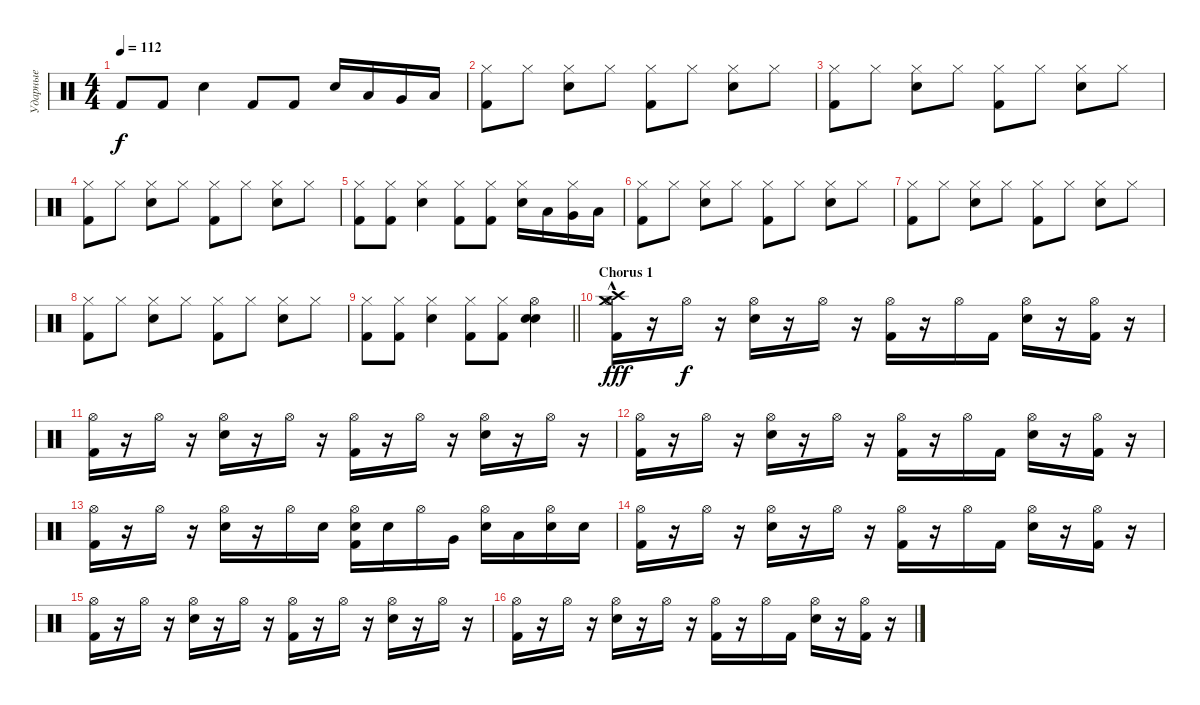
\track ("Ударные" "Ударные") {instrument percussion}
\staff {score}
\articulation defaults
\ts (4 4)
\tempo 112
\clef neutral
\ks c "Kick (hit) 2".8{dy f} "Kick (hit) 2".8 "Snare (hit) 2".4 "Kick (hit) 2".8 "Kick (hit) 2".8 "Snare (hit) 2".16 "Low Tom (hit)".16 "Very Low Tom (hit)".16 "Low Floor Tom (hit)".16
|
("Hi-Hat (closed)" "Kick (hit) 2").8 "Hi-Hat (closed)".8 ("Hi-Hat (closed)" "Snare (hit) 2").8 "Hi-Hat (closed)".8 ("Hi-Hat (closed)" "Kick (hit) 2").8 "Hi-Hat (closed)".8 ("Hi-Hat (closed)" "Snare (hit) 2").8 "Hi-Hat (closed)".8 |
("Hi-Hat (closed)" "Kick (hit) 2").8 "Hi-Hat (closed)".8 ("Hi-Hat (closed)" "Snare (hit) 2").8 "Hi-Hat (closed)".8 ("Hi-Hat (closed)" "Kick (hit) 2").8 "Hi-Hat (closed)".8 ("Hi-Hat (closed)" "Snare (hit) 2").8 "Hi-Hat (closed)".8 |
("Hi-Hat (closed)" "Kick (hit) 2").8 "Hi-Hat (closed)".8 ("Hi-Hat (closed)" "Snare (hit) 2").8 "Hi-Hat (closed)".8 ("Hi-Hat (closed)" "Kick (hit) 2").8 "Hi-Hat (closed)".8 ("Hi-Hat (closed)" "Snare (hit) 2").8 "Hi-Hat (closed)".8 |
("Hi-Hat (closed)" "Kick (hit) 2").8 ("Hi-Hat (closed)" "Kick (hit) 2").8 ("Hi-Hat (closed)" "Snare (hit) 2").4 ("Hi-Hat (closed)" "Kick (hit) 2").8 ("Hi-Hat (closed)" "Kick (hit) 2").8 ("Hi-Hat (closed)" "Snare (hit) 2").16 "Low Tom (hit)".16 ("Hi-Hat (closed)" "Very Low Tom (hit)").16 "Low Floor Tom (hit)".16 |
("Hi-Hat (closed)" "Kick (hit) 2").8 "Hi-Hat (closed)".8 ("Hi-Hat (closed)" "Snare (hit) 2").8 "Hi-Hat (closed)".8 ("Hi-Hat (closed)" "Kick (hit) 2").8 "Hi-Hat (closed)".8 ("Hi-Hat (closed)" "Snare (hit) 2").8 "Hi-Hat (closed)".8 |
("Hi-Hat (closed)" "Kick (hit) 2").8 "Hi-Hat (closed)".8 ("Hi-Hat (closed)" "Snare (hit) 2").8 "Hi-Hat (closed)".8 ("Hi-Hat (closed)" "Kick (hit) 2").8 "Hi-Hat (closed)".8 ("Hi-Hat (closed)" "Snare (hit) 2").8 "Hi-Hat (closed)".8 |
("Hi-Hat (closed)" "Kick (hit) 2").8 "Hi-Hat (closed)".8 ("Hi-Hat (closed)" "Snare (hit) 2").8 "Hi-Hat (closed)".8 ("Hi-Hat (closed)" "Kick (hit) 2").8 "Hi-Hat (closed)".8 ("Hi-Hat (closed)" "Snare (hit) 2").8 "Hi-Hat (closed)".8 |
\barLineRight lightlight
("Hi-Hat (closed)" "Kick (hit) 2").8 ("Hi-Hat (closed)" "Kick (hit) 2").8 ("Hi-Hat (closed)" "Snare (hit) 2").4 ("Hi-Hat (closed)" "Kick (hit) 2").8 ("Hi-Hat (closed)" "Kick (hit) 2").8 ("Hi-Hat (open)" "Snare (hit) 2" "Electric Snare (hit)").4 |
\section ("" "Chorus 1")
("Crash high (hit)"{hac} "Crash medium (hit)"{hac} "Hi-Hat (open)" "Kick (hit) 2").16{dy fff} r.16 "Hi-Hat (open)".16{dy f} r.16 ("Hi-Hat (open)" "Snare (hit) 2").16 r.16 "Hi-Hat (open)".16 r.16 ("Hi-Hat (open)" "Kick (hit) 2").16 r.16 "Hi-Hat (open)".16 "Kick (hit) 2".16 ("Hi-Hat (open)" "Snare (hit) 2").16 r.16 ("Hi-Hat (open)" "Kick (hit) 2").16 r.16 |
("Hi-Hat (open)" "Kick (hit) 2").16 r.16 "Hi-Hat (open)".16 r.16 ("Hi-Hat (open)" "Snare (hit) 2").16 r.16 "Hi-Hat (open)".16 r.16 ("Hi-Hat (open)" "Kick (hit) 2").16 r.16 "Hi-Hat (open)".16 r.16 ("Hi-Hat (open)" "Snare (hit) 2").16 r.16 "Hi-Hat (open)".16 r.16 |
("Hi-Hat (open)" "Kick (hit) 2").16 r.16 "Hi-Hat (open)".16 r.16 ("Hi-Hat (open)" "Snare (hit) 2").16 r.16 "Hi-Hat (open)".16 r.16 ("Hi-Hat (open)" "Kick (hit) 2").16 r.16 "Hi-Hat (open)".16 "Kick (hit) 2".16 ("Hi-Hat (open)" "Snare (hit) 2").16 r.16 ("Hi-Hat (open)" "Kick (hit) 2").16 r.16 |
("Hi-Hat (open)" "Kick (hit) 2").16 r.16 "Hi-Hat (open)".16 r.16 ("Hi-Hat (open)" "Snare (hit) 2").16 r.16 "Hi-Hat (open)".16 "Snare (hit) 2".16 ("Hi-Hat (open)" "Electric Snare (hit)" "Kick (hit) 2").16 "Snare (hit) 2".16 "Hi-Hat (open)".16 "Very Low Tom (hit)".16 ("Hi-Hat (open)" "Snare (hit) 2").16 "Low Floor Tom (hit)".16 ("Hi-Hat (open)" "Electric Snare (hit)").16 "Snare (hit) 2".16 |
("Hi-Hat (open)" "Kick (hit) 2").16 r.16 "Hi-Hat (open)".16 r.16 ("Hi-Hat (open)" "Snare (hit) 2").16 r.16 "Hi-Hat (open)".16 r.16 ("Hi-Hat (open)" "Kick (hit) 2").16 r.16 "Hi-Hat (open)".16 "Kick (hit) 2".16 ("Hi-Hat (open)" "Snare (hit) 2").16 r.16 ("Hi-Hat (open)" "Kick (hit) 2").16 r.16 |
("Hi-Hat (open)" "Kick (hit) 2").16 r.16 "Hi-Hat (open)".16 r.16 ("Hi-Hat (open)" "Snare (hit) 2").16 r.16 "Hi-Hat (open)".16 r.16 ("Hi-Hat (open)" "Kick (hit) 2").16 r.16 "Hi-Hat (open)".16 r.16 ("Hi-Hat (open)" "Snare (hit) 2").16 r.16 "Hi-Hat (open)".16 r.16 |
("Hi-Hat (open)" "Kick (hit) 2").16 r.16 "Hi-Hat (open)".16 r.16 ("Hi-Hat (open)" "Snare (hit) 2").16 r.16 "Hi-Hat (open)".16 r.16 ("Hi-Hat (open)" "Kick (hit) 2").16 r.16 "Hi-Hat (open)".16 "Kick (hit) 2".16 ("Hi-Hat (open)" "Snare (hit) 2").16 r.16 ("Hi-Hat (open)" "Kick (hit) 2").16 r.16
